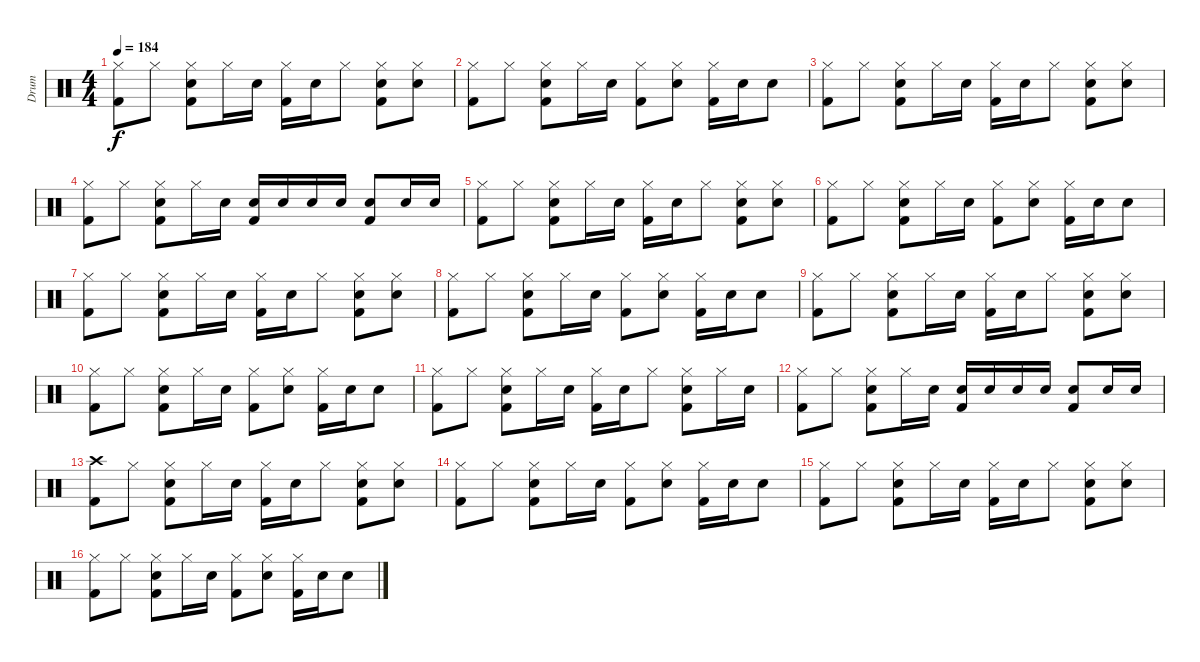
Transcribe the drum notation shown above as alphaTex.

\track ("Drum" "Drum") {instrument percussion}
\staff {score}
\articulation defaults
\ts (4 4)
\tempo 184
\clef neutral
\ks c
("Hi-Hat (closed)" "Kick (hit) 2").8{dy f} "Hi-Hat (closed)".8 ("Hi-Hat (closed)" "Electric Snare (hit)" "Kick (hit) 2").8 "Hi-Hat (closed)".16 "Electric Snare (hit)".16 ("Hi-Hat (closed)" "Kick (hit) 2").16 "Electric Snare (hit)".16 "Hi-Hat (closed)".8 ("Hi-Hat (closed)" "Electric Snare (hit)" "Kick (hit) 2").8 ("Hi-Hat (closed)" "Electric Snare (hit)").8 |
("Hi-Hat (closed)" "Kick (hit) 2").8 "Hi-Hat (closed)".8 ("Hi-Hat (closed)" "Electric Snare (hit)" "Kick (hit) 2").8 "Hi-Hat (closed)".16 "Electric Snare (hit)".16 ("Hi-Hat (closed)" "Kick (hit) 2").8 ("Hi-Hat (closed)" "Electric Snare (hit)").8 ("Hi-Hat (closed)" "Kick (hit) 2").16 "Electric Snare (hit)".16 "Electric Snare (hit)".8 |
("Hi-Hat (closed)" "Kick (hit) 2").8 "Hi-Hat (closed)".8 ("Hi-Hat (closed)" "Electric Snare (hit)" "Kick (hit) 2").8 "Hi-Hat (closed)".16 "Electric Snare (hit)".16 ("Hi-Hat (closed)" "Kick (hit) 2").16 "Electric Snare (hit)".16 "Hi-Hat (closed)".8 ("Hi-Hat (closed)" "Electric Snare (hit)" "Kick (hit) 2").8 ("Hi-Hat (closed)" "Electric Snare (hit)").8 |
("Hi-Hat (closed)" "Kick (hit) 2").8 "Hi-Hat (closed)".8 ("Hi-Hat (closed)" "Electric Snare (hit)" "Kick (hit) 2").8 "Hi-Hat (closed)".16 "Electric Snare (hit)".16 ("Electric Snare (hit)" "Kick (hit) 2").16 "Electric Snare (hit)".16 "Electric Snare (hit)".16 "Electric Snare (hit)".16 ("Electric Snare (hit)" "Kick (hit) 2").8 "Electric Snare (hit)".16 "Electric Snare (hit)".16 |
("Hi-Hat (closed)" "Kick (hit) 2").8 "Hi-Hat (closed)".8 ("Hi-Hat (closed)" "Electric Snare (hit)" "Kick (hit) 2").8 "Hi-Hat (closed)".16 "Electric Snare (hit)".16 ("Hi-Hat (closed)" "Kick (hit) 2").16 "Electric Snare (hit)".16 "Hi-Hat (closed)".8 ("Hi-Hat (closed)" "Electric Snare (hit)" "Kick (hit) 2").8 ("Hi-Hat (closed)" "Electric Snare (hit)").8 |
("Hi-Hat (closed)" "Kick (hit) 2").8 "Hi-Hat (closed)".8 ("Hi-Hat (closed)" "Electric Snare (hit)" "Kick (hit) 2").8 "Hi-Hat (closed)".16 "Electric Snare (hit)".16 ("Hi-Hat (closed)" "Kick (hit) 2").8 ("Hi-Hat (closed)" "Electric Snare (hit)").8 ("Hi-Hat (closed)" "Kick (hit) 2").16 "Electric Snare (hit)".16 "Electric Snare (hit)".8 |
("Hi-Hat (closed)" "Kick (hit) 2").8 "Hi-Hat (closed)".8 ("Hi-Hat (closed)" "Electric Snare (hit)" "Kick (hit) 2").8 "Hi-Hat (closed)".16 "Electric Snare (hit)".16 ("Hi-Hat (closed)" "Kick (hit) 2").16 "Electric Snare (hit)".16 "Hi-Hat (closed)".8 ("Hi-Hat (closed)" "Electric Snare (hit)" "Kick (hit) 2").8 ("Hi-Hat (closed)" "Electric Snare (hit)").8 |
("Hi-Hat (closed)" "Kick (hit) 2").8 "Hi-Hat (closed)".8 ("Hi-Hat (closed)" "Electric Snare (hit)" "Kick (hit) 2").8 "Hi-Hat (closed)".16 "Electric Snare (hit)".16 ("Hi-Hat (closed)" "Kick (hit) 2").8 ("Hi-Hat (closed)" "Electric Snare (hit)").8 ("Hi-Hat (closed)" "Kick (hit) 2").16 "Electric Snare (hit)".16 "Electric Snare (hit)".8 |
("Hi-Hat (closed)" "Kick (hit) 2").8 "Hi-Hat (closed)".8 ("Hi-Hat (closed)" "Electric Snare (hit)" "Kick (hit) 2").8 "Hi-Hat (closed)".16 "Electric Snare (hit)".16 ("Hi-Hat (closed)" "Kick (hit) 2").16 "Electric Snare (hit)".16 "Hi-Hat (closed)".8 ("Hi-Hat (closed)" "Electric Snare (hit)" "Kick (hit) 2").8 ("Hi-Hat (closed)" "Electric Snare (hit)").8 |
("Hi-Hat (closed)" "Kick (hit) 2").8 "Hi-Hat (closed)".8 ("Hi-Hat (closed)" "Electric Snare (hit)" "Kick (hit) 2").8 "Hi-Hat (closed)".16 "Electric Snare (hit)".16 ("Hi-Hat (closed)" "Kick (hit) 2").8 ("Hi-Hat (closed)" "Electric Snare (hit)").8 ("Hi-Hat (closed)" "Kick (hit) 2").16 "Electric Snare (hit)".16 "Electric Snare (hit)".8 |
("Hi-Hat (closed)" "Kick (hit) 2").8 "Hi-Hat (closed)".8 ("Hi-Hat (closed)" "Electric Snare (hit)" "Kick (hit) 2").8 "Hi-Hat (closed)".16 "Electric Snare (hit)".16 ("Hi-Hat (closed)" "Kick (hit) 2").16 "Electric Snare (hit)".16 "Hi-Hat (closed)".8 ("Hi-Hat (closed)" "Electric Snare (hit)" "Kick (hit) 2").8 "Hi-Hat (closed)".16 "Electric Snare (hit)".16 |
("Hi-Hat (closed)" "Kick (hit) 2").8 "Hi-Hat (closed)".8 ("Hi-Hat (closed)" "Electric Snare (hit)" "Kick (hit) 2").8 "Hi-Hat (closed)".16 "Electric Snare (hit)".16 ("Electric Snare (hit)" "Kick (hit) 2").16 "Electric Snare (hit)".16 "Electric Snare (hit)".16 "Electric Snare (hit)".16 ("Electric Snare (hit)" "Kick (hit) 2").8 "Electric Snare (hit)".16 "Electric Snare (hit)".16 |
("Crash high (hit)" "Kick (hit) 2").8 "Hi-Hat (closed)".8 ("Hi-Hat (closed)" "Electric Snare (hit)" "Kick (hit) 2").8 "Hi-Hat (closed)".16 "Electric Snare (hit)".16 ("Hi-Hat (closed)" "Kick (hit) 2").16 "Electric Snare (hit)".16 "Hi-Hat (closed)".8 ("Hi-Hat (closed)" "Electric Snare (hit)" "Kick (hit) 2").8 ("Hi-Hat (closed)" "Electric Snare (hit)").8 |
("Hi-Hat (closed)" "Kick (hit) 2").8 "Hi-Hat (closed)".8 ("Hi-Hat (closed)" "Electric Snare (hit)" "Kick (hit) 2").8 "Hi-Hat (closed)".16 "Electric Snare (hit)".16 ("Hi-Hat (closed)" "Kick (hit) 2").8 ("Hi-Hat (closed)" "Electric Snare (hit)").8 ("Hi-Hat (closed)" "Kick (hit) 2").16 "Electric Snare (hit)".16 "Electric Snare (hit)".8 |
("Hi-Hat (closed)" "Kick (hit) 2").8 "Hi-Hat (closed)".8 ("Hi-Hat (closed)" "Electric Snare (hit)" "Kick (hit) 2").8 "Hi-Hat (closed)".16 "Electric Snare (hit)".16 ("Hi-Hat (closed)" "Kick (hit) 2").16 "Electric Snare (hit)".16 "Hi-Hat (closed)".8 ("Hi-Hat (closed)" "Electric Snare (hit)" "Kick (hit) 2").8 ("Hi-Hat (closed)" "Electric Snare (hit)").8 |
("Hi-Hat (closed)" "Kick (hit) 2").8 "Hi-Hat (closed)".8 ("Hi-Hat (closed)" "Electric Snare (hit)" "Kick (hit) 2").8 "Hi-Hat (closed)".16 "Electric Snare (hit)".16 ("Hi-Hat (closed)" "Kick (hit) 2").8 ("Hi-Hat (closed)" "Electric Snare (hit)").8 ("Hi-Hat (closed)" "Kick (hit) 2").16 "Electric Snare (hit)".16 "Electric Snare (hit)".8
